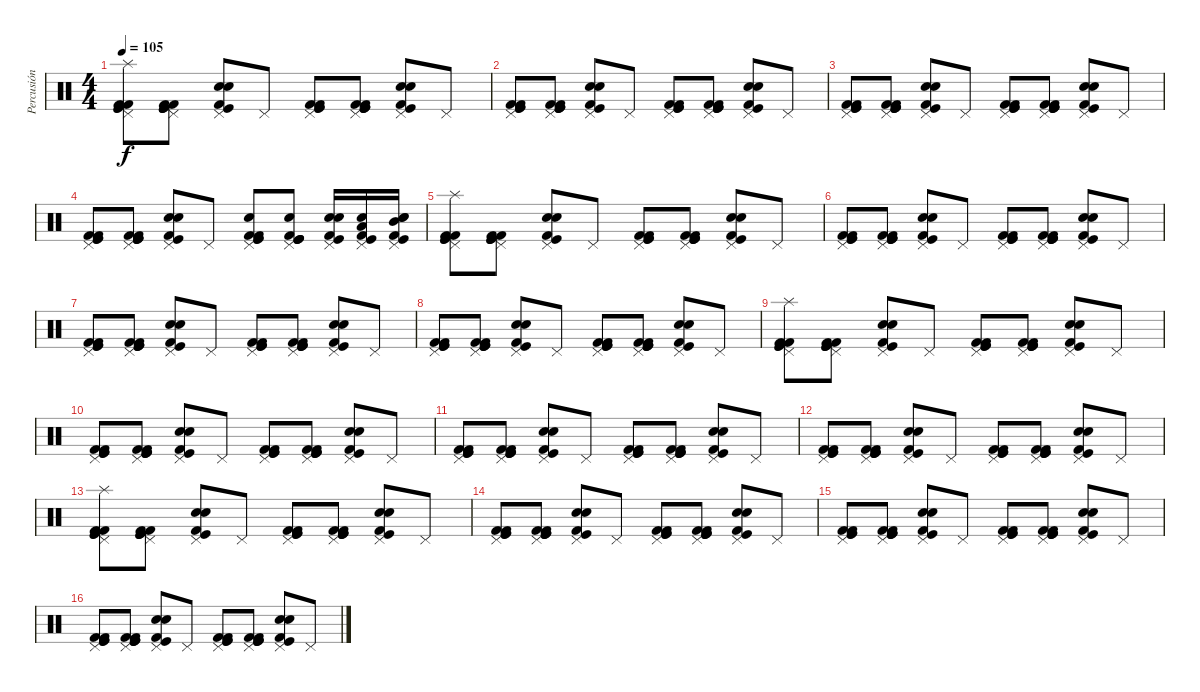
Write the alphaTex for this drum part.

\track ("Percusión" "Percusión") {instrument percussion}
\staff {score}
\articulation defaults
\ts (4 4)
\tempo 105
\clef neutral
\ks c
("Kick (hit) 2" "Kick (hit)" "Pedal Hi-Hat (hit)" "Splash (hit)" "Kick (hit) 2" "Kick (hit)").8{dy f} ("Kick (hit) 2" "Kick (hit)" "Pedal Hi-Hat (hit)" "Kick (hit) 2" "Kick (hit)" "Kick (hit)").8 ("Snare (hit) 2" "Pedal Hi-Hat (hit)" "Electric Snare (hit)" "Kick (hit)" "Kick (hit) 2").8 "Pedal Hi-Hat (hit)".8 ("Kick (hit) 2" "Kick (hit)" "Pedal Hi-Hat (hit)" "Kick (hit) 2" "Kick (hit)").8 ("Kick (hit) 2" "Kick (hit)" "Pedal Hi-Hat (hit)" "Kick (hit) 2" "Kick (hit)" "Kick (hit)").8 ("Snare (hit) 2" "Pedal Hi-Hat (hit)" "Electric Snare (hit)" "Kick (hit)" "Kick (hit) 2").8 "Pedal Hi-Hat (hit)".8 |
("Kick (hit) 2" "Kick (hit)" "Pedal Hi-Hat (hit)" "Kick (hit) 2" "Kick (hit)").8 ("Kick (hit) 2" "Kick (hit)" "Pedal Hi-Hat (hit)" "Kick (hit) 2" "Kick (hit)" "Kick (hit)").8 ("Snare (hit) 2" "Pedal Hi-Hat (hit)" "Electric Snare (hit)" "Kick (hit)" "Kick (hit) 2").8 "Pedal Hi-Hat (hit)".8 ("Kick (hit) 2" "Kick (hit)" "Pedal Hi-Hat (hit)" "Kick (hit) 2" "Kick (hit)").8 ("Kick (hit) 2" "Kick (hit)" "Pedal Hi-Hat (hit)" "Kick (hit) 2" "Kick (hit)" "Kick (hit)").8 ("Snare (hit) 2" "Pedal Hi-Hat (hit)" "Electric Snare (hit)" "Kick (hit)" "Kick (hit) 2").8 "Pedal Hi-Hat (hit)".8 |
("Kick (hit) 2" "Kick (hit)" "Pedal Hi-Hat (hit)" "Kick (hit) 2" "Kick (hit)").8 ("Kick (hit) 2" "Kick (hit)" "Pedal Hi-Hat (hit)" "Kick (hit) 2" "Kick (hit)" "Kick (hit)").8 ("Snare (hit) 2" "Pedal Hi-Hat (hit)" "Electric Snare (hit)" "Kick (hit)" "Kick (hit) 2").8 "Pedal Hi-Hat (hit)".8 ("Kick (hit) 2" "Kick (hit)" "Pedal Hi-Hat (hit)" "Kick (hit) 2" "Kick (hit)").8 ("Kick (hit) 2" "Kick (hit)" "Pedal Hi-Hat (hit)" "Kick (hit) 2" "Kick (hit)" "Kick (hit)").8 ("Snare (hit) 2" "Pedal Hi-Hat (hit)" "Electric Snare (hit)" "Kick (hit)" "Kick (hit) 2").8 "Pedal Hi-Hat (hit)".8 |
("Kick (hit) 2" "Kick (hit)" "Pedal Hi-Hat (hit)" "Kick (hit) 2" "Kick (hit)").8 ("Kick (hit) 2" "Kick (hit)" "Pedal Hi-Hat (hit)" "Kick (hit) 2" "Kick (hit)" "Kick (hit)").8 ("Snare (hit) 2" "Pedal Hi-Hat (hit)" "Electric Snare (hit)" "Kick (hit)" "Kick (hit) 2").8 "Pedal Hi-Hat (hit)".8 ("Kick (hit) 2" "Kick (hit)" "Pedal Hi-Hat (hit)" "Snare (hit) 2" "Kick (hit) 2" "Kick (hit)").8 ("Kick (hit) 2" "Kick (hit)" "Pedal Hi-Hat (hit)" "Snare (hit) 2" "Kick (hit)" "Kick (hit)").8 ("Snare (hit) 2" "Pedal Hi-Hat (hit)" "Electric Snare (hit)" "Kick (hit)" "Kick (hit) 2").16 ("Low Tom (hit)" "Pedal Hi-Hat (hit)" "Electric Snare (hit)" "Kick (hit)" "Kick (hit) 2").16 ("Snare (hit) 2" "Mid Tom (hit)" "Pedal Hi-Hat (hit)" "Electric Snare (hit)" "Kick (hit)" "Kick (hit) 2").16 |
("Kick (hit) 2" "Kick (hit)" "Pedal Hi-Hat (hit)" "Splash (hit)" "Kick (hit) 2" "Kick (hit)").8 ("Kick (hit) 2" "Kick (hit)" "Pedal Hi-Hat (hit)" "Kick (hit) 2" "Kick (hit)" "Kick (hit)").8 ("Snare (hit) 2" "Pedal Hi-Hat (hit)" "Electric Snare (hit)" "Kick (hit)" "Kick (hit) 2").8 "Pedal Hi-Hat (hit)".8 ("Kick (hit) 2" "Kick (hit)" "Pedal Hi-Hat (hit)" "Kick (hit) 2" "Kick (hit)").8 ("Kick (hit) 2" "Kick (hit)" "Pedal Hi-Hat (hit)" "Kick (hit) 2" "Kick (hit)" "Kick (hit)").8 ("Snare (hit) 2" "Pedal Hi-Hat (hit)" "Electric Snare (hit)" "Kick (hit)" "Kick (hit) 2").8 "Pedal Hi-Hat (hit)".8 |
("Kick (hit) 2" "Kick (hit)" "Pedal Hi-Hat (hit)" "Kick (hit) 2" "Kick (hit)").8 ("Kick (hit) 2" "Kick (hit)" "Pedal Hi-Hat (hit)" "Kick (hit) 2" "Kick (hit)" "Kick (hit)").8 ("Snare (hit) 2" "Pedal Hi-Hat (hit)" "Electric Snare (hit)" "Kick (hit)" "Kick (hit) 2").8 "Pedal Hi-Hat (hit)".8 ("Kick (hit) 2" "Kick (hit)" "Pedal Hi-Hat (hit)" "Kick (hit) 2" "Kick (hit)").8 ("Kick (hit) 2" "Kick (hit)" "Pedal Hi-Hat (hit)" "Kick (hit) 2" "Kick (hit)" "Kick (hit)").8 ("Snare (hit) 2" "Pedal Hi-Hat (hit)" "Electric Snare (hit)" "Kick (hit)" "Kick (hit) 2").8 "Pedal Hi-Hat (hit)".8 |
("Kick (hit) 2" "Kick (hit)" "Pedal Hi-Hat (hit)" "Kick (hit) 2" "Kick (hit)").8 ("Kick (hit) 2" "Kick (hit)" "Pedal Hi-Hat (hit)" "Kick (hit) 2" "Kick (hit)" "Kick (hit)").8 ("Snare (hit) 2" "Pedal Hi-Hat (hit)" "Electric Snare (hit)" "Kick (hit)" "Kick (hit) 2").8 "Pedal Hi-Hat (hit)".8 ("Kick (hit) 2" "Kick (hit)" "Pedal Hi-Hat (hit)" "Kick (hit) 2" "Kick (hit)").8 ("Kick (hit) 2" "Kick (hit)" "Pedal Hi-Hat (hit)" "Kick (hit) 2" "Kick (hit)" "Kick (hit)").8 ("Snare (hit) 2" "Pedal Hi-Hat (hit)" "Electric Snare (hit)" "Kick (hit)" "Kick (hit) 2").8 "Pedal Hi-Hat (hit)".8 |
("Kick (hit) 2" "Kick (hit)" "Pedal Hi-Hat (hit)" "Kick (hit) 2" "Kick (hit)").8 ("Kick (hit) 2" "Kick (hit)" "Pedal Hi-Hat (hit)" "Kick (hit) 2" "Kick (hit)" "Kick (hit)").8 ("Snare (hit) 2" "Pedal Hi-Hat (hit)" "Electric Snare (hit)" "Kick (hit)" "Kick (hit) 2").8 "Pedal Hi-Hat (hit)".8 ("Kick (hit) 2" "Kick (hit)" "Pedal Hi-Hat (hit)" "Kick (hit) 2" "Kick (hit)").8 ("Kick (hit) 2" "Kick (hit)" "Pedal Hi-Hat (hit)" "Kick (hit) 2" "Kick (hit)" "Kick (hit)").8 ("Snare (hit) 2" "Pedal Hi-Hat (hit)" "Electric Snare (hit)" "Kick (hit)" "Kick (hit) 2").8 "Pedal Hi-Hat (hit)".8 |
("Kick (hit) 2" "Kick (hit)" "Pedal Hi-Hat (hit)" "Splash (hit)" "Kick (hit) 2" "Kick (hit)").8 ("Kick (hit) 2" "Kick (hit)" "Pedal Hi-Hat (hit)" "Kick (hit) 2" "Kick (hit)" "Kick (hit)").8 ("Snare (hit) 2" "Pedal Hi-Hat (hit)" "Electric Snare (hit)" "Kick (hit)" "Kick (hit) 2").8 "Pedal Hi-Hat (hit)".8 ("Kick (hit) 2" "Kick (hit)" "Pedal Hi-Hat (hit)" "Kick (hit) 2" "Kick (hit)").8 ("Kick (hit) 2" "Kick (hit)" "Pedal Hi-Hat (hit)" "Kick (hit) 2" "Kick (hit)" "Kick (hit)").8 ("Snare (hit) 2" "Pedal Hi-Hat (hit)" "Electric Snare (hit)" "Kick (hit)" "Kick (hit) 2").8 "Pedal Hi-Hat (hit)".8 |
("Kick (hit) 2" "Kick (hit)" "Pedal Hi-Hat (hit)" "Kick (hit) 2" "Kick (hit)").8 ("Kick (hit) 2" "Kick (hit)" "Pedal Hi-Hat (hit)" "Kick (hit) 2" "Kick (hit)" "Kick (hit)").8 ("Snare (hit) 2" "Pedal Hi-Hat (hit)" "Electric Snare (hit)" "Kick (hit)" "Kick (hit) 2").8 "Pedal Hi-Hat (hit)".8 ("Kick (hit) 2" "Kick (hit)" "Pedal Hi-Hat (hit)" "Kick (hit) 2" "Kick (hit)").8 ("Kick (hit) 2" "Kick (hit)" "Pedal Hi-Hat (hit)" "Kick (hit) 2" "Kick (hit)" "Kick (hit)").8 ("Snare (hit) 2" "Pedal Hi-Hat (hit)" "Electric Snare (hit)" "Kick (hit)" "Kick (hit) 2").8 "Pedal Hi-Hat (hit)".8 |
("Kick (hit) 2" "Kick (hit)" "Pedal Hi-Hat (hit)" "Kick (hit) 2" "Kick (hit)").8 ("Kick (hit) 2" "Kick (hit)" "Pedal Hi-Hat (hit)" "Kick (hit) 2" "Kick (hit)" "Kick (hit)").8 ("Snare (hit) 2" "Pedal Hi-Hat (hit)" "Electric Snare (hit)" "Kick (hit)" "Kick (hit) 2").8 "Pedal Hi-Hat (hit)".8 ("Kick (hit) 2" "Kick (hit)" "Pedal Hi-Hat (hit)" "Kick (hit) 2" "Kick (hit)").8 ("Kick (hit) 2" "Kick (hit)" "Pedal Hi-Hat (hit)" "Kick (hit) 2" "Kick (hit)" "Kick (hit)").8 ("Snare (hit) 2" "Pedal Hi-Hat (hit)" "Electric Snare (hit)" "Kick (hit)" "Kick (hit) 2").8 "Pedal Hi-Hat (hit)".8 |
("Kick (hit) 2" "Kick (hit)" "Pedal Hi-Hat (hit)" "Kick (hit) 2" "Kick (hit)").8 ("Kick (hit) 2" "Kick (hit)" "Pedal Hi-Hat (hit)" "Kick (hit) 2" "Kick (hit)" "Kick (hit)").8 ("Snare (hit) 2" "Pedal Hi-Hat (hit)" "Electric Snare (hit)" "Kick (hit)" "Kick (hit) 2").8 "Pedal Hi-Hat (hit)".8 ("Kick (hit) 2" "Kick (hit)" "Pedal Hi-Hat (hit)" "Kick (hit) 2" "Kick (hit)").8 ("Kick (hit) 2" "Kick (hit)" "Pedal Hi-Hat (hit)" "Kick (hit) 2" "Kick (hit)" "Kick (hit)").8 ("Snare (hit) 2" "Pedal Hi-Hat (hit)" "Electric Snare (hit)" "Kick (hit)" "Kick (hit) 2").8 "Pedal Hi-Hat (hit)".8 |
("Kick (hit) 2" "Kick (hit)" "Pedal Hi-Hat (hit)" "Splash (hit)" "Kick (hit) 2" "Kick (hit)").8 ("Kick (hit) 2" "Kick (hit)" "Pedal Hi-Hat (hit)" "Kick (hit) 2" "Kick (hit)" "Kick (hit)").8 ("Snare (hit) 2" "Pedal Hi-Hat (hit)" "Electric Snare (hit)" "Kick (hit)" "Kick (hit) 2").8 "Pedal Hi-Hat (hit)".8 ("Kick (hit) 2" "Kick (hit)" "Pedal Hi-Hat (hit)" "Kick (hit) 2" "Kick (hit)").8 ("Kick (hit) 2" "Kick (hit)" "Pedal Hi-Hat (hit)" "Kick (hit) 2" "Kick (hit)" "Kick (hit)").8 ("Snare (hit) 2" "Pedal Hi-Hat (hit)" "Electric Snare (hit)" "Kick (hit)" "Kick (hit) 2").8 "Pedal Hi-Hat (hit)".8 |
("Kick (hit) 2" "Kick (hit)" "Pedal Hi-Hat (hit)" "Kick (hit) 2" "Kick (hit)").8 ("Kick (hit) 2" "Kick (hit)" "Pedal Hi-Hat (hit)" "Kick (hit) 2" "Kick (hit)" "Kick (hit)").8 ("Snare (hit) 2" "Pedal Hi-Hat (hit)" "Electric Snare (hit)" "Kick (hit)" "Kick (hit) 2").8 "Pedal Hi-Hat (hit)".8 ("Kick (hit) 2" "Kick (hit)" "Pedal Hi-Hat (hit)" "Kick (hit) 2" "Kick (hit)").8 ("Kick (hit) 2" "Kick (hit)" "Pedal Hi-Hat (hit)" "Kick (hit) 2" "Kick (hit)" "Kick (hit)").8 ("Snare (hit) 2" "Pedal Hi-Hat (hit)" "Electric Snare (hit)" "Kick (hit)" "Kick (hit) 2").8 "Pedal Hi-Hat (hit)".8 |
("Kick (hit) 2" "Kick (hit)" "Pedal Hi-Hat (hit)" "Kick (hit) 2" "Kick (hit)").8 ("Kick (hit) 2" "Kick (hit)" "Pedal Hi-Hat (hit)" "Kick (hit) 2" "Kick (hit)" "Kick (hit)").8 ("Snare (hit) 2" "Pedal Hi-Hat (hit)" "Electric Snare (hit)" "Kick (hit)" "Kick (hit) 2").8 "Pedal Hi-Hat (hit)".8 ("Kick (hit) 2" "Kick (hit)" "Pedal Hi-Hat (hit)" "Kick (hit) 2" "Kick (hit)").8 ("Kick (hit) 2" "Kick (hit)" "Pedal Hi-Hat (hit)" "Kick (hit) 2" "Kick (hit)" "Kick (hit)").8 ("Snare (hit) 2" "Pedal Hi-Hat (hit)" "Electric Snare (hit)" "Kick (hit)" "Kick (hit) 2").8 "Pedal Hi-Hat (hit)".8 |
("Kick (hit) 2" "Kick (hit)" "Pedal Hi-Hat (hit)" "Kick (hit) 2" "Kick (hit)").8 ("Kick (hit) 2" "Kick (hit)" "Pedal Hi-Hat (hit)" "Kick (hit) 2" "Kick (hit)" "Kick (hit)").8 ("Snare (hit) 2" "Pedal Hi-Hat (hit)" "Electric Snare (hit)" "Kick (hit)" "Kick (hit) 2").8 "Pedal Hi-Hat (hit)".8 ("Kick (hit) 2" "Kick (hit)" "Pedal Hi-Hat (hit)" "Kick (hit) 2" "Kick (hit)").8 ("Kick (hit) 2" "Kick (hit)" "Pedal Hi-Hat (hit)" "Kick (hit) 2" "Kick (hit)" "Kick (hit)").8 ("Snare (hit) 2" "Pedal Hi-Hat (hit)" "Electric Snare (hit)" "Kick (hit)" "Kick (hit) 2").8 "Pedal Hi-Hat (hit)".8
